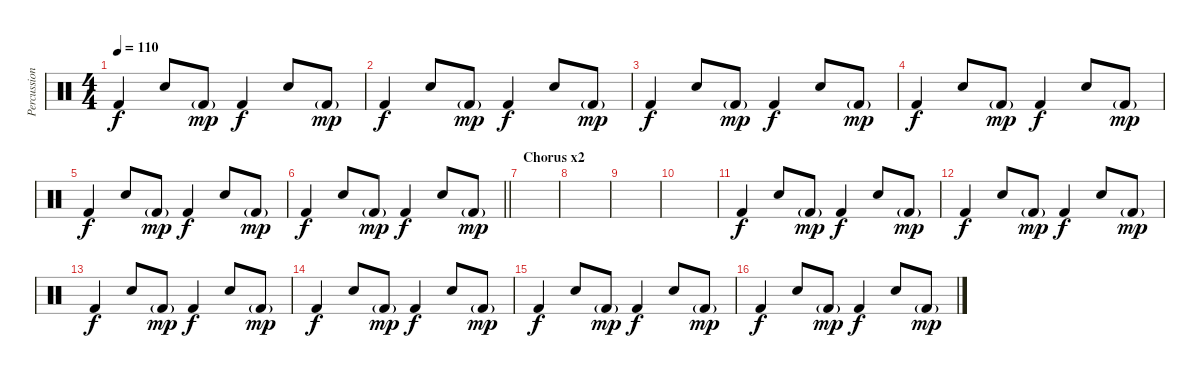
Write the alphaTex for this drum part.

\track ("Percussion" "Percussion") {instrument percussion}
\staff {score}
\articulation defaults
\ts (4 4)
\tempo 110
\clef neutral
\ks c "Kick (hit) 2".4{dy f} "Snare (hit) 2".8 "Kick (hit) 2"{g}.8{dy mp} "Kick (hit) 2".4{dy f} "Snare (hit) 2".8 "Kick (hit) 2"{g}.8{dy mp}
|
"Kick (hit) 2".4{dy f} "Snare (hit) 2".8 "Kick (hit) 2"{g}.8{dy mp} "Kick (hit) 2".4{dy f} "Snare (hit) 2".8 "Kick (hit) 2"{g}.8{dy mp} |
"Kick (hit) 2".4{dy f} "Snare (hit) 2".8 "Kick (hit) 2"{g}.8{dy mp} "Kick (hit) 2".4{dy f} "Snare (hit) 2".8 "Kick (hit) 2"{g}.8{dy mp} |
"Kick (hit) 2".4{dy f} "Snare (hit) 2".8 "Kick (hit) 2"{g}.8{dy mp} "Kick (hit) 2".4{dy f} "Snare (hit) 2".8 "Kick (hit) 2"{g}.8{dy mp} |
"Kick (hit) 2".4{dy f} "Snare (hit) 2".8 "Kick (hit) 2"{g}.8{dy mp} "Kick (hit) 2".4{dy f} "Snare (hit) 2".8 "Kick (hit) 2"{g}.8{dy mp} |
\barLineRight lightlight "Kick (hit) 2".4{dy f} "Snare (hit) 2".8 "Kick (hit) 2"{g}.8{dy mp} "Kick (hit) 2".4{dy f} "Snare (hit) 2".8 "Kick (hit) 2"{g}.8{dy mp}
|
\section ("" "Chorus x2")
|
|
|
|
"Kick (hit) 2".4{dy f} "Snare (hit) 2".8 "Kick (hit) 2"{g}.8{dy mp} "Kick (hit) 2".4{dy f} "Snare (hit) 2".8 "Kick (hit) 2"{g}.8{dy mp} |
"Kick (hit) 2".4{dy f} "Snare (hit) 2".8 "Kick (hit) 2"{g}.8{dy mp} "Kick (hit) 2".4{dy f} "Snare (hit) 2".8 "Kick (hit) 2"{g}.8{dy mp} |
"Kick (hit) 2".4{dy f} "Snare (hit) 2".8 "Kick (hit) 2"{g}.8{dy mp} "Kick (hit) 2".4{dy f} "Snare (hit) 2".8 "Kick (hit) 2"{g}.8{dy mp} |
"Kick (hit) 2".4{dy f} "Snare (hit) 2".8 "Kick (hit) 2"{g}.8{dy mp} "Kick (hit) 2".4{dy f} "Snare (hit) 2".8 "Kick (hit) 2"{g}.8{dy mp} |
"Kick (hit) 2".4{dy f} "Snare (hit) 2".8 "Kick (hit) 2"{g}.8{dy mp} "Kick (hit) 2".4{dy f} "Snare (hit) 2".8 "Kick (hit) 2"{g}.8{dy mp} |
"Kick (hit) 2".4{dy f} "Snare (hit) 2".8 "Kick (hit) 2"{g}.8{dy mp} "Kick (hit) 2".4{dy f} "Snare (hit) 2".8 "Kick (hit) 2"{g}.8{dy mp}
